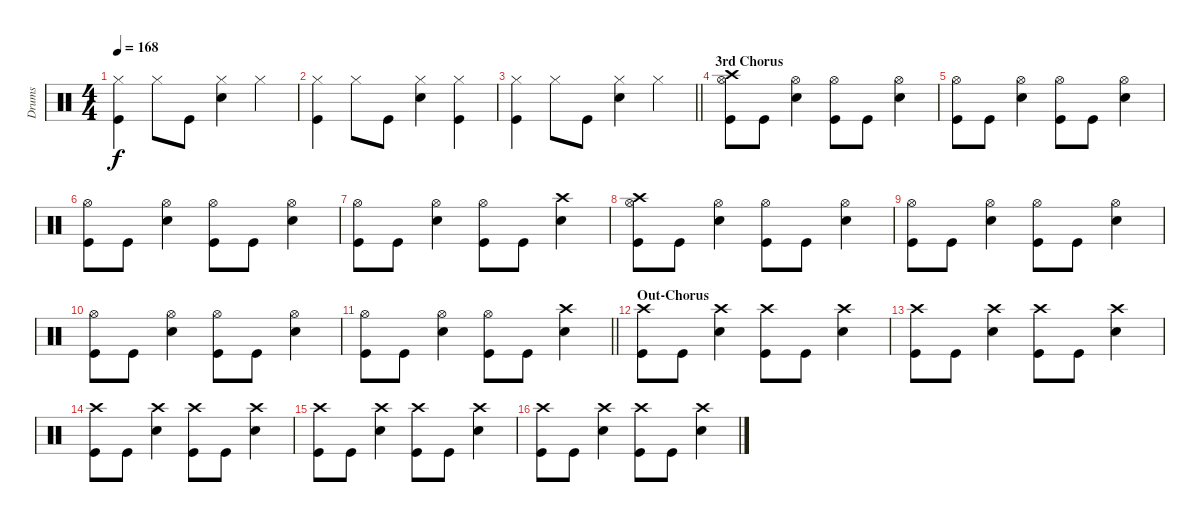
\track ("Drums" "Drums") {instrument percussion}
\staff {score}
\articulation defaults
\ts (4 4)
\tempo 168
\clef neutral
\ks c
("Hi-Hat (closed)" "Kick (hit)").4{dy f} "Hi-Hat (closed)".8 "Kick (hit)".8 ("Hi-Hat (closed)" "Electric Snare (hit)").4 "Hi-Hat (closed)".4 |
("Hi-Hat (closed)" "Kick (hit)").4 "Hi-Hat (closed)".8 "Kick (hit)".8 ("Hi-Hat (closed)" "Electric Snare (hit)").4 ("Hi-Hat (closed)" "Kick (hit)").4 |
\barLineRight lightlight
("Hi-Hat (closed)" "Kick (hit)").4 "Hi-Hat (closed)".8 "Kick (hit)".8 ("Hi-Hat (closed)" "Electric Snare (hit)").4 "Hi-Hat (closed)".4 |
\section ("" "3rd Chorus")
("Crash high (hit)" "Hi-Hat (open)" "Kick (hit)").8 "Kick (hit)".8 ("Hi-Hat (open)" "Snare (hit) 2").4 ("Hi-Hat (open)" "Kick (hit)").8 "Kick (hit)".8 ("Hi-Hat (open)" "Snare (hit) 2").4 |
("Hi-Hat (open)" "Kick (hit)").8 "Kick (hit)".8 ("Hi-Hat (open)" "Snare (hit) 2").4 ("Hi-Hat (open)" "Kick (hit)").8 "Kick (hit)".8 ("Hi-Hat (open)" "Snare (hit) 2").4 |
("Hi-Hat (open)" "Kick (hit)").8 "Kick (hit)".8 ("Hi-Hat (open)" "Snare (hit) 2").4 ("Hi-Hat (open)" "Kick (hit)").8 "Kick (hit)".8 ("Hi-Hat (open)" "Snare (hit) 2").4 |
("Hi-Hat (open)" "Kick (hit)").8 "Kick (hit)".8 ("Hi-Hat (open)" "Snare (hit) 2").4 ("Hi-Hat (open)" "Kick (hit)").8 "Kick (hit)".8 ("Crash high (hit)" "Snare (hit) 2").4 |
("Crash high (hit)" "Hi-Hat (open)" "Kick (hit)").8 "Kick (hit)".8 ("Hi-Hat (open)" "Snare (hit) 2").4 ("Hi-Hat (open)" "Kick (hit)").8 "Kick (hit)".8 ("Hi-Hat (open)" "Snare (hit) 2").4 |
("Hi-Hat (open)" "Kick (hit)").8 "Kick (hit)".8 ("Hi-Hat (open)" "Snare (hit) 2").4 ("Hi-Hat (open)" "Kick (hit)").8 "Kick (hit)".8 ("Hi-Hat (open)" "Snare (hit) 2").4 |
("Hi-Hat (open)" "Kick (hit)").8 "Kick (hit)".8 ("Hi-Hat (open)" "Snare (hit) 2").4 ("Hi-Hat (open)" "Kick (hit)").8 "Kick (hit)".8 ("Hi-Hat (open)" "Snare (hit) 2").4 |
\barLineRight lightlight
("Hi-Hat (open)" "Kick (hit)").8 "Kick (hit)".8 ("Hi-Hat (open)" "Snare (hit) 2").4 ("Hi-Hat (open)" "Kick (hit)").8 "Kick (hit)".8 ("Crash high (hit)" "Snare (hit) 2").4 |
\section ("" "Out-Chorus")
("Crash high (hit)" "Kick (hit)").8 "Kick (hit)".8 ("Crash high (hit)" "Snare (hit) 2").4 ("Crash high (hit)" "Kick (hit)").8 "Kick (hit)".8 ("Crash high (hit)" "Snare (hit) 2").4 |
("Crash high (hit)" "Kick (hit)").8 "Kick (hit)".8 ("Crash high (hit)" "Snare (hit) 2").4 ("Crash high (hit)" "Kick (hit)").8 "Kick (hit)".8 ("Crash high (hit)" "Snare (hit) 2").4 |
("Crash high (hit)" "Kick (hit)").8 "Kick (hit)".8 ("Crash high (hit)" "Snare (hit) 2").4 ("Crash high (hit)" "Kick (hit)").8 "Kick (hit)".8 ("Crash high (hit)" "Snare (hit) 2").4 |
("Crash high (hit)" "Kick (hit)").8 "Kick (hit)".8 ("Crash high (hit)" "Snare (hit) 2").4 ("Crash high (hit)" "Kick (hit)").8 "Kick (hit)".8 ("Crash high (hit)" "Snare (hit) 2").4 |
("Crash high (hit)" "Kick (hit)").8 "Kick (hit)".8 ("Crash high (hit)" "Snare (hit) 2").4 ("Crash high (hit)" "Kick (hit)").8 "Kick (hit)".8 ("Crash high (hit)" "Snare (hit) 2").4
